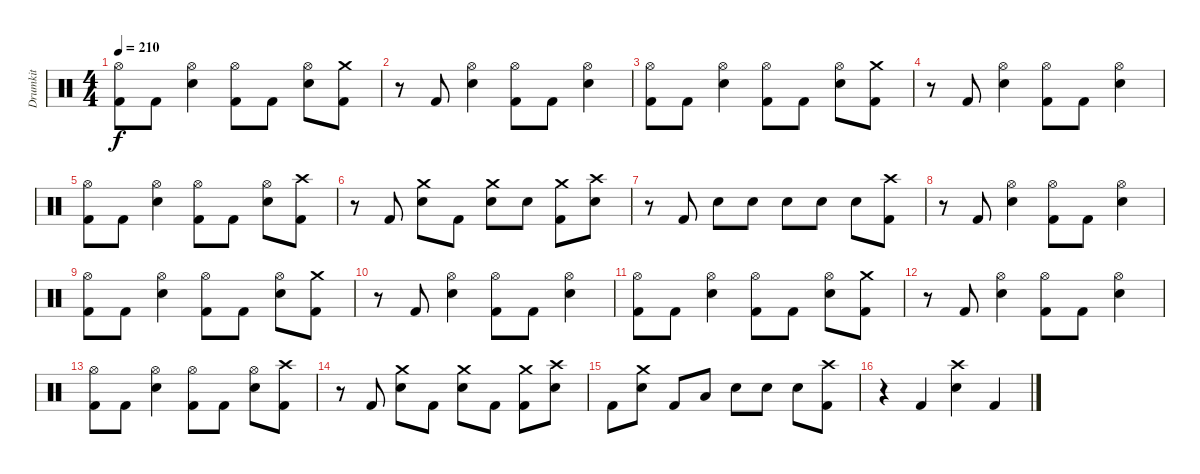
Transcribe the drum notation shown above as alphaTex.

\track ("Drumkit" "Drumkit") {instrument percussion}
\staff {score}
\articulation defaults
\ts (4 4)
\tempo 210
\clef neutral
\ks c
("Hi-Hat (open)" "Kick (hit) 2").8{dy f} "Kick (hit) 2".8 ("Hi-Hat (open)" "Electric Snare (hit)").4 ("Hi-Hat (open)" "Kick (hit) 2").8 "Kick (hit) 2".8 ("Hi-Hat (open)" "Electric Snare (hit)").8 ("Crash medium (hit)" "Kick (hit) 2").8 |
r.8 "Kick (hit) 2".8 ("Hi-Hat (open)" "Electric Snare (hit)").4 ("Hi-Hat (open)" "Kick (hit) 2").8 "Kick (hit) 2".8 ("Hi-Hat (open)" "Electric Snare (hit)").4 |
("Hi-Hat (open)" "Kick (hit) 2").8 "Kick (hit) 2".8 ("Hi-Hat (open)" "Electric Snare (hit)").4 ("Hi-Hat (open)" "Kick (hit) 2").8 "Kick (hit) 2".8 ("Hi-Hat (open)" "Electric Snare (hit)").8 ("Crash medium (hit)" "Kick (hit) 2").8 |
r.8 "Kick (hit) 2".8 ("Hi-Hat (open)" "Electric Snare (hit)").4 ("Hi-Hat (open)" "Kick (hit) 2").8 "Kick (hit) 2".8 ("Hi-Hat (open)" "Electric Snare (hit)").4 |
("Hi-Hat (open)" "Kick (hit) 2").8 "Kick (hit) 2".8 ("Hi-Hat (open)" "Electric Snare (hit)").4 ("Hi-Hat (open)" "Kick (hit) 2").8 "Kick (hit) 2".8 ("Hi-Hat (open)" "Electric Snare (hit)").8 ("Crash high (hit)" "Kick (hit) 2").8 |
r.8 "Kick (hit) 2".8 ("Crash medium (hit)" "Electric Snare (hit)").8 "Kick (hit) 2".8 ("Crash medium (hit)" "Electric Snare (hit)").8 "Electric Snare (hit)".8 ("Crash medium (hit)" "Kick (hit) 2").8 ("Crash high (hit)" "Electric Snare (hit)").8 |
r.8 "Kick (hit) 2".8 "Electric Snare (hit)".8 "Electric Snare (hit)".8 "Electric Snare (hit)".8 "Electric Snare (hit)".8 "Electric Snare (hit)".8 ("Crash high (hit)" "Kick (hit) 2").8 |
r.8 "Kick (hit) 2".8 ("Hi-Hat (open)" "Electric Snare (hit)").4 ("Hi-Hat (open)" "Kick (hit) 2").8 "Kick (hit) 2".8 ("Hi-Hat (open)" "Electric Snare (hit)").4 |
("Hi-Hat (open)" "Kick (hit) 2").8 "Kick (hit) 2".8 ("Hi-Hat (open)" "Electric Snare (hit)").4 ("Hi-Hat (open)" "Kick (hit) 2").8 "Kick (hit) 2".8 ("Hi-Hat (open)" "Electric Snare (hit)").8 ("Crash medium (hit)" "Kick (hit) 2").8 |
r.8 "Kick (hit) 2".8 ("Hi-Hat (open)" "Electric Snare (hit)").4 ("Hi-Hat (open)" "Kick (hit) 2").8 "Kick (hit) 2".8 ("Hi-Hat (open)" "Electric Snare (hit)").4 |
("Hi-Hat (open)" "Kick (hit) 2").8 "Kick (hit) 2".8 ("Hi-Hat (open)" "Electric Snare (hit)").4 ("Hi-Hat (open)" "Kick (hit) 2").8 "Kick (hit) 2".8 ("Hi-Hat (open)" "Electric Snare (hit)").8 ("Crash medium (hit)" "Kick (hit) 2").8 |
r.8 "Kick (hit) 2".8 ("Hi-Hat (open)" "Electric Snare (hit)").4 ("Hi-Hat (open)" "Kick (hit) 2").8 "Kick (hit) 2".8 ("Hi-Hat (open)" "Electric Snare (hit)").4 |
("Hi-Hat (open)" "Kick (hit) 2").8 "Kick (hit) 2".8 ("Hi-Hat (open)" "Electric Snare (hit)").4 ("Hi-Hat (open)" "Kick (hit) 2").8 "Kick (hit) 2".8 ("Hi-Hat (open)" "Electric Snare (hit)").8 ("Crash high (hit)" "Kick (hit) 2").8 |
r.8 "Kick (hit) 2".8 ("Crash medium (hit)" "Electric Snare (hit)").8 "Kick (hit) 2".8 ("Crash medium (hit)" "Electric Snare (hit)").8 "Kick (hit) 2".8 ("Crash medium (hit)" "Kick (hit) 2").8 ("Crash high (hit)" "Electric Snare (hit)").8 |
"Kick (hit) 2".8 ("Crash medium (hit)" "Electric Snare (hit)").8 "Kick (hit) 2".8 "Low Tom (hit)".8 "Electric Snare (hit)".8 "Electric Snare (hit)".8 "Electric Snare (hit)".8 ("Crash high (hit)" "Kick (hit) 2").8 |
r.4 "Kick (hit) 2".4 ("Crash high (hit)" "Electric Snare (hit)").4 "Kick (hit) 2".4
